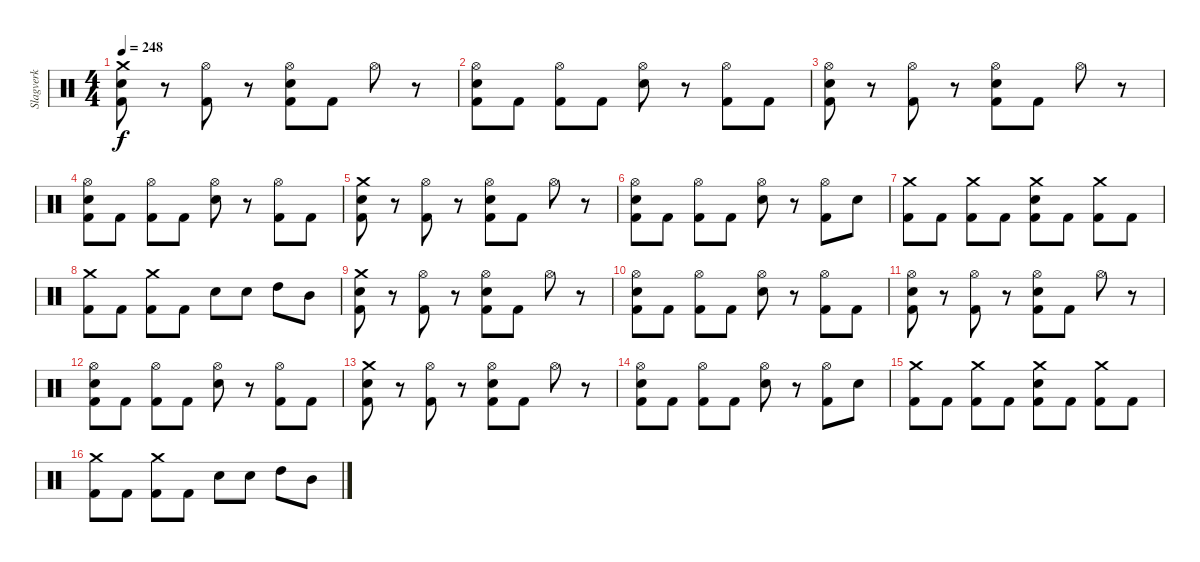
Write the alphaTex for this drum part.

\track ("Slagverk" "Slagverk") {instrument percussion}
\staff {score}
\articulation defaults
\ts (4 4)
\tempo 248
\clef neutral
\ks c
("Crash medium (hit)" "Snare (hit) 2" "Kick (hit) 2").8{dy f} r.8 ("Hi-Hat (open)" "Kick (hit) 2").8 r.8 ("Hi-Hat (open)" "Snare (hit) 2" "Kick (hit) 2").8 "Kick (hit) 2".8 "Hi-Hat (open)".8 r.8 |
("Hi-Hat (open)" "Snare (hit) 2" "Kick (hit) 2").8 "Kick (hit) 2".8 ("Hi-Hat (open)" "Kick (hit) 2").8 "Kick (hit) 2".8 ("Hi-Hat (open)" "Snare (hit) 2").8 r.8 ("Hi-Hat (open)" "Kick (hit) 2").8 "Kick (hit) 2".8 |
("Hi-Hat (open)" "Snare (hit) 2" "Kick (hit) 2").8 r.8 ("Hi-Hat (open)" "Kick (hit) 2").8 r.8 ("Hi-Hat (open)" "Snare (hit) 2" "Kick (hit) 2").8 "Kick (hit) 2".8 "Hi-Hat (open)".8 r.8 |
("Hi-Hat (open)" "Snare (hit) 2" "Kick (hit) 2").8 "Kick (hit) 2".8 ("Hi-Hat (open)" "Kick (hit) 2").8 "Kick (hit) 2".8 ("Hi-Hat (open)" "Snare (hit) 2").8 r.8 ("Hi-Hat (open)" "Kick (hit) 2").8 "Kick (hit) 2".8 |
("Crash medium (hit)" "Snare (hit) 2" "Kick (hit) 2").8 r.8 ("Hi-Hat (open)" "Kick (hit) 2").8 r.8 ("Hi-Hat (open)" "Snare (hit) 2" "Kick (hit) 2").8 "Kick (hit) 2".8 "Hi-Hat (open)".8 r.8 |
("Hi-Hat (open)" "Snare (hit) 2" "Kick (hit) 2").8 "Kick (hit) 2".8 ("Hi-Hat (open)" "Kick (hit) 2").8 "Kick (hit) 2".8 ("Hi-Hat (open)" "Snare (hit) 2").8 r.8 ("Hi-Hat (open)" "Kick (hit) 2").8 "Snare (hit) 2".8 |
("Crash medium (hit)" "Kick (hit) 2").8 "Kick (hit) 2".8 ("Crash medium (hit)" "Kick (hit) 2").8 "Kick (hit) 2".8 ("Crash medium (hit)" "Snare (hit) 2" "Kick (hit) 2").8 "Kick (hit) 2".8 ("Crash medium (hit)" "Kick (hit) 2").8 "Kick (hit) 2".8 |
("Crash medium (hit)" "Kick (hit) 2").8 "Kick (hit) 2".8 ("Crash medium (hit)" "Kick (hit) 2").8 "Kick (hit) 2".8 "Snare (hit) 2".8 "Snare (hit) 2".8 "High Tom (hit)".8 "Mid Tom (hit)".8 |
("Crash medium (hit)" "Snare (hit) 2" "Kick (hit) 2").8 r.8 ("Hi-Hat (open)" "Kick (hit) 2").8 r.8 ("Hi-Hat (open)" "Snare (hit) 2" "Kick (hit) 2").8 "Kick (hit) 2".8 "Hi-Hat (open)".8 r.8 |
("Hi-Hat (open)" "Snare (hit) 2" "Kick (hit) 2").8 "Kick (hit) 2".8 ("Hi-Hat (open)" "Kick (hit) 2").8 "Kick (hit) 2".8 ("Hi-Hat (open)" "Snare (hit) 2").8 r.8 ("Hi-Hat (open)" "Kick (hit) 2").8 "Kick (hit) 2".8 |
("Hi-Hat (open)" "Snare (hit) 2" "Kick (hit) 2").8 r.8 ("Hi-Hat (open)" "Kick (hit) 2").8 r.8 ("Hi-Hat (open)" "Snare (hit) 2" "Kick (hit) 2").8 "Kick (hit) 2".8 "Hi-Hat (open)".8 r.8 |
("Hi-Hat (open)" "Snare (hit) 2" "Kick (hit) 2").8 "Kick (hit) 2".8 ("Hi-Hat (open)" "Kick (hit) 2").8 "Kick (hit) 2".8 ("Hi-Hat (open)" "Snare (hit) 2").8 r.8 ("Hi-Hat (open)" "Kick (hit) 2").8 "Kick (hit) 2".8 |
("Crash medium (hit)" "Snare (hit) 2" "Kick (hit) 2").8 r.8 ("Hi-Hat (open)" "Kick (hit) 2").8 r.8 ("Hi-Hat (open)" "Snare (hit) 2" "Kick (hit) 2").8 "Kick (hit) 2".8 "Hi-Hat (open)".8 r.8 |
("Hi-Hat (open)" "Snare (hit) 2" "Kick (hit) 2").8 "Kick (hit) 2".8 ("Hi-Hat (open)" "Kick (hit) 2").8 "Kick (hit) 2".8 ("Hi-Hat (open)" "Snare (hit) 2").8 r.8 ("Hi-Hat (open)" "Kick (hit) 2").8 "Snare (hit) 2".8 |
("Crash medium (hit)" "Kick (hit) 2").8 "Kick (hit) 2".8 ("Crash medium (hit)" "Kick (hit) 2").8 "Kick (hit) 2".8 ("Crash medium (hit)" "Snare (hit) 2" "Kick (hit) 2").8 "Kick (hit) 2".8 ("Crash medium (hit)" "Kick (hit) 2").8 "Kick (hit) 2".8 |
("Crash medium (hit)" "Kick (hit) 2").8 "Kick (hit) 2".8 ("Crash medium (hit)" "Kick (hit) 2").8 "Kick (hit) 2".8 "Snare (hit) 2".8 "Snare (hit) 2".8 "High Tom (hit)".8 "Mid Tom (hit)".8
